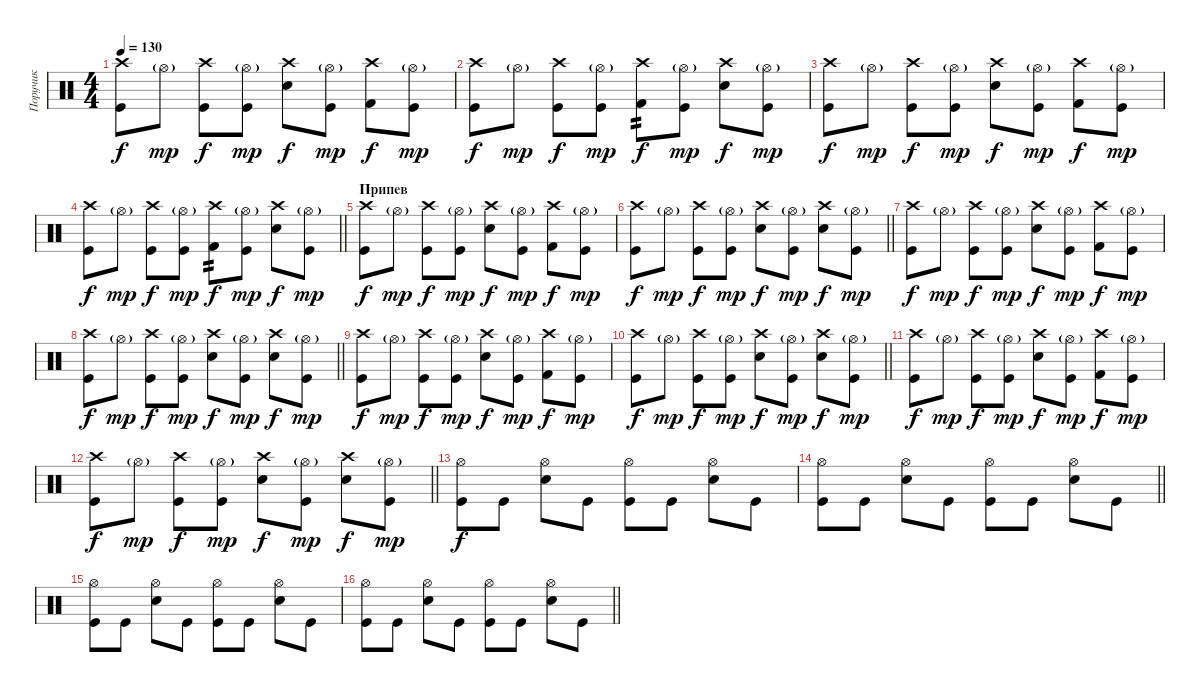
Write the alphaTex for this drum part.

\track ("Поручик" "Поручик") {instrument percussion}
\staff {score}
\articulation defaults
\ts (4 4)
\tempo 130
\clef neutral
\ks c
("Crash high (hit)" "Kick (hit)").8{dy f} "Hi-Hat (open)"{g}.8{dy mp} ("Crash high (hit)" "Kick (hit)").8{dy f} ("Hi-Hat (open)"{g} "Kick (hit)").8{dy mp} ("Electric Snare (hit)" "Crash high (hit)").8{dy f} ("Hi-Hat (open)"{g} "Kick (hit)").8{dy mp} ("Crash high (hit)" "Kick (hit) 2").8{dy f} ("Hi-Hat (open)"{g} "Kick (hit)").8{dy mp} |
("Crash high (hit)" "Kick (hit)").8{dy f} "Hi-Hat (open)"{g}.8{dy mp} ("Crash high (hit)" "Kick (hit)").8{dy f} ("Hi-Hat (open)"{g} "Kick (hit)").8{dy mp} ("Kick (hit) 2" "Crash high (hit)").8{tp 2 dy f} ("Hi-Hat (open)"{g} "Kick (hit)").8{dy mp} ("Crash high (hit)" "Electric Snare (hit)").8{dy f} ("Hi-Hat (open)"{g} "Kick (hit)").8{dy mp} |
("Crash high (hit)" "Kick (hit)").8{dy f} "Hi-Hat (open)"{g}.8{dy mp} ("Crash high (hit)" "Kick (hit)").8{dy f} ("Hi-Hat (open)"{g} "Kick (hit)").8{dy mp} ("Electric Snare (hit)" "Crash high (hit)").8{dy f} ("Hi-Hat (open)"{g} "Kick (hit)").8{dy mp} ("Crash high (hit)" "Kick (hit) 2").8{dy f} ("Hi-Hat (open)"{g} "Kick (hit)").8{dy mp} |
\barLineRight lightlight
("Crash high (hit)" "Kick (hit)").8{dy f} "Hi-Hat (open)"{g}.8{dy mp} ("Crash high (hit)" "Kick (hit)").8{dy f} ("Hi-Hat (open)"{g} "Kick (hit)").8{dy mp} ("Kick (hit) 2" "Crash high (hit)").8{tp 2 dy f} ("Hi-Hat (open)"{g} "Kick (hit)").8{dy mp} ("Crash high (hit)" "Electric Snare (hit)").8{dy f} ("Hi-Hat (open)"{g} "Kick (hit)").8{dy mp} |
\section ("" "Припев")
("Crash high (hit)" "Kick (hit)").8{dy f} "Hi-Hat (open)"{g}.8{dy mp} ("Crash high (hit)" "Kick (hit)").8{dy f} ("Hi-Hat (open)"{g} "Kick (hit)").8{dy mp} ("Electric Snare (hit)" "Crash high (hit)").8{dy f} ("Hi-Hat (open)"{g} "Kick (hit)").8{dy mp} ("Crash high (hit)" "Kick (hit) 2").8{dy f} ("Hi-Hat (open)"{g} "Kick (hit)").8{dy mp} |
\barLineRight lightlight
("Crash high (hit)" "Kick (hit)").8{dy f} "Hi-Hat (open)"{g}.8{dy mp} ("Crash high (hit)" "Kick (hit)").8{dy f} ("Hi-Hat (open)"{g} "Kick (hit)").8{dy mp} ("Electric Snare (hit)" "Crash high (hit)").8{dy f} ("Hi-Hat (open)"{g} "Kick (hit)").8{dy mp} ("Crash high (hit)" "Electric Snare (hit)").8{dy f} ("Hi-Hat (open)"{g} "Kick (hit)").8{dy mp} |
("Crash high (hit)" "Kick (hit)").8{dy f} "Hi-Hat (open)"{g}.8{dy mp} ("Crash high (hit)" "Kick (hit)").8{dy f} ("Hi-Hat (open)"{g} "Kick (hit)").8{dy mp} ("Electric Snare (hit)" "Crash high (hit)").8{dy f} ("Hi-Hat (open)"{g} "Kick (hit)").8{dy mp} ("Crash high (hit)" "Kick (hit) 2").8{dy f} ("Hi-Hat (open)"{g} "Kick (hit)").8{dy mp} |
\barLineRight lightlight
("Crash high (hit)" "Kick (hit)").8{dy f} "Hi-Hat (open)"{g}.8{dy mp} ("Crash high (hit)" "Kick (hit)").8{dy f} ("Hi-Hat (open)"{g} "Kick (hit)").8{dy mp} ("Electric Snare (hit)" "Crash high (hit)").8{dy f} ("Hi-Hat (open)"{g} "Kick (hit)").8{dy mp} ("Crash high (hit)" "Electric Snare (hit)").8{dy f} ("Hi-Hat (open)"{g} "Kick (hit)").8{dy mp} |
("Crash high (hit)" "Kick (hit)").8{dy f} "Hi-Hat (open)"{g}.8{dy mp} ("Crash high (hit)" "Kick (hit)").8{dy f} ("Hi-Hat (open)"{g} "Kick (hit)").8{dy mp} ("Electric Snare (hit)" "Crash high (hit)").8{dy f} ("Hi-Hat (open)"{g} "Kick (hit)").8{dy mp} ("Crash high (hit)" "Kick (hit) 2").8{dy f} ("Hi-Hat (open)"{g} "Kick (hit)").8{dy mp} |
\barLineRight lightlight
("Crash high (hit)" "Kick (hit)").8{dy f} "Hi-Hat (open)"{g}.8{dy mp} ("Crash high (hit)" "Kick (hit)").8{dy f} ("Hi-Hat (open)"{g} "Kick (hit)").8{dy mp} ("Electric Snare (hit)" "Crash high (hit)").8{dy f} ("Hi-Hat (open)"{g} "Kick (hit)").8{dy mp} ("Crash high (hit)" "Electric Snare (hit)").8{dy f} ("Hi-Hat (open)"{g} "Kick (hit)").8{dy mp} |
("Crash high (hit)" "Kick (hit)").8{dy f} "Hi-Hat (open)"{g}.8{dy mp} ("Crash high (hit)" "Kick (hit)").8{dy f} ("Hi-Hat (open)"{g} "Kick (hit)").8{dy mp} ("Electric Snare (hit)" "Crash high (hit)").8{dy f} ("Hi-Hat (open)"{g} "Kick (hit)").8{dy mp} ("Crash high (hit)" "Kick (hit) 2").8{dy f} ("Hi-Hat (open)"{g} "Kick (hit)").8{dy mp} |
\barLineRight lightlight
("Crash high (hit)" "Kick (hit)").8{dy f} "Hi-Hat (open)"{g}.8{dy mp} ("Crash high (hit)" "Kick (hit)").8{dy f} ("Hi-Hat (open)"{g} "Kick (hit)").8{dy mp} ("Electric Snare (hit)" "Crash high (hit)").8{dy f} ("Hi-Hat (open)"{g} "Kick (hit)").8{dy mp} ("Crash high (hit)" "Electric Snare (hit)").8{dy f} ("Hi-Hat (open)"{g} "Kick (hit)").8{dy mp} |
("Kick (hit)" "Hi-Hat (open)").8{dy f} "Kick (hit)".8 ("Electric Snare (hit)" "Hi-Hat (open)").8 "Kick (hit)".8 ("Kick (hit)" "Hi-Hat (open)").8 "Kick (hit)".8 ("Electric Snare (hit)" "Hi-Hat (open)").8 "Kick (hit)".8 |
\barLineRight lightlight
("Kick (hit)" "Hi-Hat (open)").8 "Kick (hit)".8 ("Electric Snare (hit)" "Hi-Hat (open)").8 "Kick (hit)".8 ("Kick (hit)" "Hi-Hat (open)").8 "Kick (hit)".8 ("Electric Snare (hit)" "Hi-Hat (open)").8 "Kick (hit)".8 |
("Kick (hit)" "Hi-Hat (open)").8 "Kick (hit)".8 ("Electric Snare (hit)" "Hi-Hat (open)").8 "Kick (hit)".8 ("Kick (hit)" "Hi-Hat (open)").8 "Kick (hit)".8 ("Electric Snare (hit)" "Hi-Hat (open)").8 "Kick (hit)".8 |
\barLineRight lightlight
("Kick (hit)" "Hi-Hat (open)").8 "Kick (hit)".8 ("Electric Snare (hit)" "Hi-Hat (open)").8 "Kick (hit)".8 ("Kick (hit)" "Hi-Hat (open)").8 "Kick (hit)".8 ("Electric Snare (hit)" "Hi-Hat (open)").8 "Kick (hit)".8
